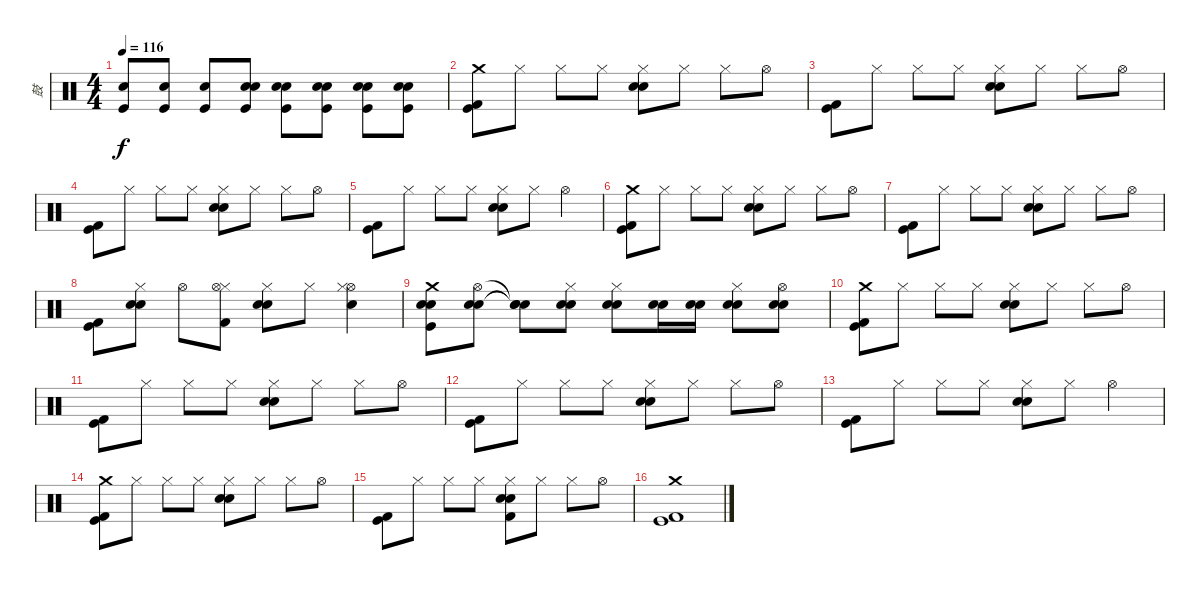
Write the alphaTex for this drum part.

\track ("鼓" "鼓") {instrument percussion}
\staff {score}
\articulation defaults
\ts (4 4)
\tempo 116
\clef neutral
\ks c
("Electric Snare (hit)" "Kick (hit)").8{dy f} ("Electric Snare (hit)" "Kick (hit)").8 ("Electric Snare (hit)" "Kick (hit)").8 ("Electric Snare (hit)" "Kick (hit)" "Snare (hit) 2").8 ("Electric Snare (hit)" "Kick (hit)" "Snare (hit) 2").8 ("Electric Snare (hit)" "Kick (hit)" "Snare (hit) 2").8 ("Electric Snare (hit)" "Kick (hit)" "Snare (hit) 2").8 ("Electric Snare (hit)" "Snare (hit) 2" "Kick (hit)").8 |
("Kick (hit) 2" "Kick (hit)" "Crash medium (hit)").8 "Hi-Hat (closed)".8 "Hi-Hat (closed)".8 "Hi-Hat (closed)".8 ("Electric Snare (hit)" "Snare (hit) 2" "Hi-Hat (closed)").8 "Hi-Hat (closed)".8 "Hi-Hat (closed)".8 "Hi-Hat (open)".8 |
("Kick (hit) 2" "Kick (hit)").8 "Hi-Hat (closed)".8 "Hi-Hat (closed)".8 "Hi-Hat (closed)".8 ("Electric Snare (hit)" "Snare (hit) 2" "Hi-Hat (closed)").8 "Hi-Hat (closed)".8 "Hi-Hat (closed)".8 "Hi-Hat (open)".8 |
("Kick (hit) 2" "Kick (hit)").8 "Hi-Hat (closed)".8 "Hi-Hat (closed)".8 "Hi-Hat (closed)".8 ("Electric Snare (hit)" "Snare (hit) 2" "Hi-Hat (closed)").8 "Hi-Hat (closed)".8 "Hi-Hat (closed)".8 "Hi-Hat (open)".8 |
("Kick (hit) 2" "Kick (hit)").8 "Hi-Hat (closed)".8 "Hi-Hat (closed)".8 "Hi-Hat (closed)".8 ("Electric Snare (hit)" "Snare (hit) 2" "Hi-Hat (closed)").8 "Hi-Hat (closed)".8 "Hi-Hat (open)".4 |
("Kick (hit) 2" "Kick (hit)" "Crash medium (hit)").8 "Hi-Hat (closed)".8 "Hi-Hat (closed)".8 "Hi-Hat (closed)".8 ("Electric Snare (hit)" "Snare (hit) 2" "Hi-Hat (closed)").8 "Hi-Hat (closed)".8 "Hi-Hat (closed)".8 "Hi-Hat (open)".8 |
("Kick (hit) 2" "Kick (hit)").8 "Hi-Hat (closed)".8 "Hi-Hat (closed)".8 "Hi-Hat (closed)".8 ("Electric Snare (hit)" "Snare (hit) 2" "Hi-Hat (closed)").8 "Hi-Hat (closed)".8 "Hi-Hat (closed)".8 "Hi-Hat (open)".8 |
("Kick (hit) 2" "Kick (hit)").8 ("Electric Snare (hit)" "Hi-Hat (closed)" "Snare (hit) 2").8 "Hi-Hat (open)".8 ("Kick (hit) 2" "Hi-Hat (closed)" "Hi-Hat (open)").8 ("Electric Snare (hit)" "Snare (hit) 2" "Hi-Hat (closed)").8 "Hi-Hat (closed)".8 ("Electric Snare (hit)" "Hi-Hat (open)" "Hi-Hat (closed)").4 |
("Crash medium (hit)" "Kick (hit)" "Electric Snare (hit)" "Snare (hit) 2").8 ("Hi-Hat (open)" "Electric Snare (hit)" "Snare (hit) 2").8 ("Snare (hit)"{t} "Snare (hit)"{t} "Snare (hit)"{t}).8 ("Electric Snare (hit)" "Snare (hit) 2" "Hi-Hat (closed)").8 ("Electric Snare (hit)" "Snare (hit) 2" "Hi-Hat (closed)").8 ("Snare (hit) 2" "Electric Snare (hit)").16 ("Snare (hit) 2" "Electric Snare (hit)").16 ("Electric Snare (hit)" "Snare (hit) 2" "Hi-Hat (closed)").8 ("Electric Snare (hit)" "Snare (hit) 2" "Hi-Hat (open)").8 |
("Kick (hit) 2" "Kick (hit)" "Crash medium (hit)").8 "Hi-Hat (closed)".8 "Hi-Hat (closed)".8 "Hi-Hat (closed)".8 ("Electric Snare (hit)" "Snare (hit) 2" "Hi-Hat (closed)").8 "Hi-Hat (closed)".8 "Hi-Hat (closed)".8 "Hi-Hat (open)".8 |
("Kick (hit) 2" "Kick (hit)").8 "Hi-Hat (closed)".8 "Hi-Hat (closed)".8 "Hi-Hat (closed)".8 ("Electric Snare (hit)" "Snare (hit) 2" "Hi-Hat (closed)").8 "Hi-Hat (closed)".8 "Hi-Hat (closed)".8 "Hi-Hat (open)".8 |
("Kick (hit) 2" "Kick (hit)").8 "Hi-Hat (closed)".8 "Hi-Hat (closed)".8 "Hi-Hat (closed)".8 ("Electric Snare (hit)" "Snare (hit) 2" "Hi-Hat (closed)").8 "Hi-Hat (closed)".8 "Hi-Hat (closed)".8 "Hi-Hat (open)".8 |
("Kick (hit) 2" "Kick (hit)").8 "Hi-Hat (closed)".8 "Hi-Hat (closed)".8 "Hi-Hat (closed)".8 ("Electric Snare (hit)" "Snare (hit) 2" "Hi-Hat (closed)").8 "Hi-Hat (closed)".8 "Hi-Hat (open)".4 |
("Kick (hit) 2" "Kick (hit)" "Crash medium (hit)").8 "Hi-Hat (closed)".8 "Hi-Hat (closed)".8 "Hi-Hat (closed)".8 ("Electric Snare (hit)" "Snare (hit) 2" "Hi-Hat (closed)").8 "Hi-Hat (closed)".8 "Hi-Hat (closed)".8 "Hi-Hat (open)".8 |
("Kick (hit) 2" "Kick (hit)").8 "Hi-Hat (closed)".8 "Hi-Hat (closed)".8 "Hi-Hat (closed)".8 ("Electric Snare (hit)" "Snare (hit) 2" "Hi-Hat (closed)" "Kick (hit) 2").8 "Hi-Hat (closed)".8 "Hi-Hat (closed)".8 "Hi-Hat (open)".8 |
("Kick (hit) 2" "Kick (hit)" "Crash medium (hit)").1
